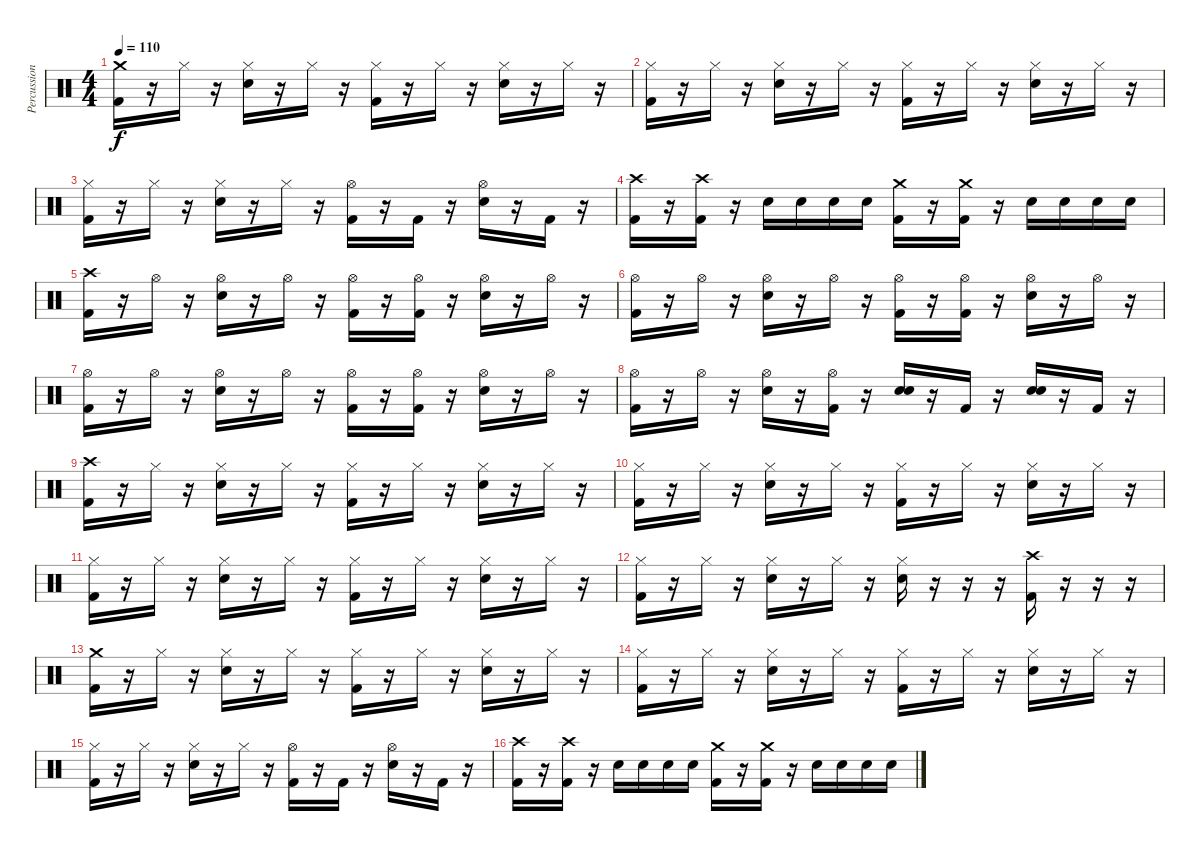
\track ("Percussion" "Percussion") {instrument percussion}
\staff {score}
\articulation defaults
\ts (4 4)
\tempo 110
\clef neutral
\ks c
("Crash medium (hit)" "Kick (hit) 2").16{dy f} r.16 "Hi-Hat (closed)".16 r.16 ("Hi-Hat (closed)" "Snare (hit) 2").16 r.16 "Hi-Hat (closed)".16 r.16 ("Hi-Hat (closed)" "Kick (hit) 2").16 r.16 "Hi-Hat (closed)".16 r.16 ("Hi-Hat (closed)" "Snare (hit) 2").16 r.16 "Hi-Hat (closed)".16 r.16 |
("Hi-Hat (closed)" "Kick (hit) 2").16 r.16 "Hi-Hat (closed)".16 r.16 ("Hi-Hat (closed)" "Snare (hit) 2").16 r.16 "Hi-Hat (closed)".16 r.16 ("Hi-Hat (closed)" "Kick (hit) 2").16 r.16 "Hi-Hat (closed)".16 r.16 ("Hi-Hat (closed)" "Snare (hit) 2").16 r.16 "Hi-Hat (closed)".16 r.16 |
("Hi-Hat (closed)" "Kick (hit) 2").16 r.16 "Hi-Hat (closed)".16 r.16 ("Hi-Hat (closed)" "Snare (hit) 2").16 r.16 "Hi-Hat (closed)".16 r.16 ("Hi-Hat (open)" "Kick (hit) 2").16 r.16 "Kick (hit) 2".16 r.16 ("Hi-Hat (open)" "Snare (hit) 2").16 r.16 "Kick (hit) 2".16 r.16 |
("Crash high (hit)" "Kick (hit) 2").16 r.16 ("Crash high (hit)" "Kick (hit) 2").16 r.16 "Snare (hit) 2".16 "Snare (hit) 2".16 "Snare (hit) 2".16 "Snare (hit) 2".16 ("Crash medium (hit)" "Kick (hit) 2").16 r.16 ("Crash medium (hit)" "Kick (hit) 2").16 r.16 "Snare (hit) 2".16 "Snare (hit) 2".16 "Snare (hit) 2".16 "Snare (hit) 2".16 |
("Crash high (hit)" "Kick (hit) 2").16 r.16 "Hi-Hat (open)".16 r.16 ("Hi-Hat (open)" "Snare (hit) 2").16 r.16 "Hi-Hat (open)".16 r.16 ("Hi-Hat (open)" "Kick (hit) 2").16 r.16 ("Hi-Hat (open)" "Kick (hit) 2").16 r.16 ("Hi-Hat (open)" "Snare (hit) 2").16 r.16 "Hi-Hat (open)".16 r.16 |
("Hi-Hat (open)" "Kick (hit) 2").16 r.16 "Hi-Hat (open)".16 r.16 ("Hi-Hat (open)" "Snare (hit) 2").16 r.16 "Hi-Hat (open)".16 r.16 ("Hi-Hat (open)" "Kick (hit) 2").16 r.16 ("Hi-Hat (open)" "Kick (hit) 2").16 r.16 ("Hi-Hat (open)" "Snare (hit) 2").16 r.16 "Hi-Hat (open)".16 r.16 |
("Hi-Hat (open)" "Kick (hit) 2").16 r.16 "Hi-Hat (open)".16 r.16 ("Hi-Hat (open)" "Snare (hit) 2").16 r.16 "Hi-Hat (open)".16 r.16 ("Hi-Hat (open)" "Kick (hit) 2").16 r.16 ("Hi-Hat (open)" "Kick (hit) 2").16 r.16 ("Hi-Hat (open)" "Snare (hit) 2").16 r.16 "Hi-Hat (open)".16 r.16 |
("Hi-Hat (open)" "Kick (hit) 2").16 r.16 "Hi-Hat (open)".16 r.16 ("Hi-Hat (open)" "Snare (hit) 2").16 r.16 ("Hi-Hat (open)" "Kick (hit) 2").16 r.16 ("Snare (hit) 2" "Snare (hit) 2").16 r.16 "Kick (hit) 2".16 r.16 ("Snare (hit) 2" "Snare (hit) 2").16 r.16 "Kick (hit) 2".16 r.16 |
("Crash high (hit)" "Kick (hit) 2").16 r.16 "Hi-Hat (closed)".16 r.16 ("Hi-Hat (closed)" "Snare (hit) 2").16 r.16 "Hi-Hat (closed)".16 r.16 ("Hi-Hat (closed)" "Kick (hit) 2").16 r.16 "Hi-Hat (closed)".16 r.16 ("Hi-Hat (closed)" "Snare (hit) 2").16 r.16 "Hi-Hat (closed)".16 r.16 |
("Hi-Hat (closed)" "Kick (hit) 2").16 r.16 "Hi-Hat (closed)".16 r.16 ("Hi-Hat (closed)" "Snare (hit) 2").16 r.16 "Hi-Hat (closed)".16 r.16 ("Hi-Hat (closed)" "Kick (hit) 2").16 r.16 "Hi-Hat (closed)".16 r.16 ("Hi-Hat (closed)" "Snare (hit) 2").16 r.16 "Hi-Hat (closed)".16 r.16 |
("Hi-Hat (closed)" "Kick (hit) 2").16 r.16 "Hi-Hat (closed)".16 r.16 ("Hi-Hat (closed)" "Snare (hit) 2").16 r.16 "Hi-Hat (closed)".16 r.16 ("Hi-Hat (closed)" "Kick (hit) 2").16 r.16 "Hi-Hat (closed)".16 r.16 ("Hi-Hat (closed)" "Snare (hit) 2").16 r.16 "Hi-Hat (closed)".16 r.16 |
("Hi-Hat (closed)" "Kick (hit) 2").16 r.16 "Hi-Hat (closed)".16 r.16 ("Hi-Hat (closed)" "Snare (hit) 2").16 r.16 "Hi-Hat (closed)".16 r.16 ("Hi-Hat (closed)" "Snare (hit) 2").16 r.16 r.16 r.16 ("Crash high (hit)" "Kick (hit) 2").16 r.16 r.16 r.16 |
("Crash medium (hit)" "Kick (hit) 2").16 r.16 "Hi-Hat (closed)".16 r.16 ("Hi-Hat (closed)" "Snare (hit) 2").16 r.16 "Hi-Hat (closed)".16 r.16 ("Hi-Hat (closed)" "Kick (hit) 2").16 r.16 "Hi-Hat (closed)".16 r.16 ("Hi-Hat (closed)" "Snare (hit) 2").16 r.16 "Hi-Hat (closed)".16 r.16 |
("Hi-Hat (closed)" "Kick (hit) 2").16 r.16 "Hi-Hat (closed)".16 r.16 ("Hi-Hat (closed)" "Snare (hit) 2").16 r.16 "Hi-Hat (closed)".16 r.16 ("Hi-Hat (closed)" "Kick (hit) 2").16 r.16 "Hi-Hat (closed)".16 r.16 ("Hi-Hat (closed)" "Snare (hit) 2").16 r.16 "Hi-Hat (closed)".16 r.16 |
("Hi-Hat (closed)" "Kick (hit) 2").16 r.16 "Hi-Hat (closed)".16 r.16 ("Hi-Hat (closed)" "Snare (hit) 2").16 r.16 "Hi-Hat (closed)".16 r.16 ("Hi-Hat (open)" "Kick (hit) 2").16 r.16 "Kick (hit) 2".16 r.16 ("Hi-Hat (open)" "Snare (hit) 2").16 r.16 "Kick (hit) 2".16 r.16 |
("Crash high (hit)" "Kick (hit) 2").16 r.16 ("Crash high (hit)" "Kick (hit) 2").16 r.16 "Snare (hit) 2".16 "Snare (hit) 2".16 "Snare (hit) 2".16 "Snare (hit) 2".16 ("Crash medium (hit)" "Kick (hit) 2").16 r.16 ("Crash medium (hit)" "Kick (hit) 2").16 r.16 "Snare (hit) 2".16 "Snare (hit) 2".16 "Snare (hit) 2".16 "Snare (hit) 2".16
